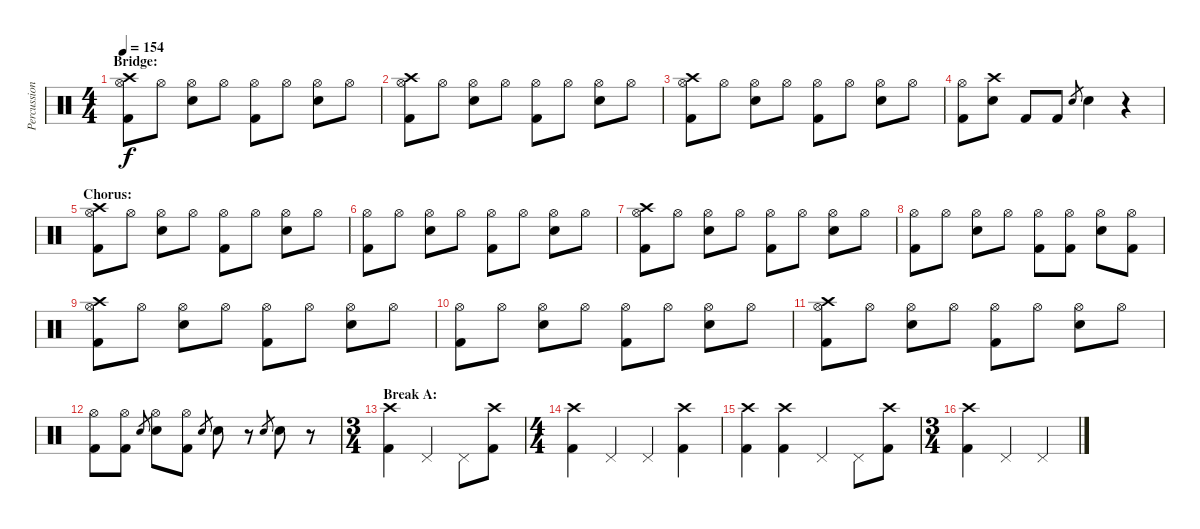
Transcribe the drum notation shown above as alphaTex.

\track ("Percussion" "Percussion") {instrument percussion}
\staff {score}
\articulation defaults
\ts (4 4)
\section ("" "Bridge:")
\tempo 154
\clef neutral
\ks c
("Hi-Hat (open)" "Crash high (hit)" "Kick (hit) 2").8{dy f} "Hi-Hat (open)".8 ("Hi-Hat (open)" "Snare (hit) 2").8 "Hi-Hat (open)".8 ("Hi-Hat (open)" "Kick (hit) 2").8 "Hi-Hat (open)".8 ("Hi-Hat (open)" "Snare (hit) 2").8 "Hi-Hat (open)".8 |
("Hi-Hat (open)" "Crash high (hit)" "Kick (hit) 2").8 "Hi-Hat (open)".8 ("Hi-Hat (open)" "Snare (hit) 2").8 "Hi-Hat (open)".8 ("Hi-Hat (open)" "Kick (hit) 2").8 "Hi-Hat (open)".8 ("Hi-Hat (open)" "Snare (hit) 2").8 "Hi-Hat (open)".8 |
("Hi-Hat (open)" "Crash high (hit)" "Kick (hit) 2").8 "Hi-Hat (open)".8 ("Hi-Hat (open)" "Snare (hit) 2").8 "Hi-Hat (open)".8 ("Hi-Hat (open)" "Kick (hit) 2").8 "Hi-Hat (open)".8 ("Hi-Hat (open)" "Snare (hit) 2").8 "Hi-Hat (open)".8 |
("Hi-Hat (open)" "Kick (hit) 2").8 ("Crash high (hit)" "Snare (hit) 2").8 "Kick (hit) 2".8 "Kick (hit) 2".8 "Snare (hit) 2".8{gr} "Snare (hit) 2".4 r.4 |
\section ("" "Chorus:")
("Hi-Hat (open)" "Crash high (hit)" "Kick (hit) 2").8 "Hi-Hat (open)".8 ("Hi-Hat (open)" "Snare (hit) 2").8 "Hi-Hat (open)".8 ("Hi-Hat (open)" "Kick (hit) 2").8 "Hi-Hat (open)".8 ("Hi-Hat (open)" "Snare (hit) 2").8 "Hi-Hat (open)".8 |
("Hi-Hat (open)" "Kick (hit) 2").8 "Hi-Hat (open)".8 ("Hi-Hat (open)" "Snare (hit) 2").8 "Hi-Hat (open)".8 ("Hi-Hat (open)" "Kick (hit) 2").8 "Hi-Hat (open)".8 ("Hi-Hat (open)" "Snare (hit) 2").8 "Hi-Hat (open)".8 |
("Hi-Hat (open)" "Crash high (hit)" "Kick (hit) 2").8 "Hi-Hat (open)".8 ("Hi-Hat (open)" "Snare (hit) 2").8 "Hi-Hat (open)".8 ("Hi-Hat (open)" "Kick (hit) 2").8 "Hi-Hat (open)".8 ("Hi-Hat (open)" "Snare (hit) 2").8 "Hi-Hat (open)".8 |
("Hi-Hat (open)" "Kick (hit) 2").8 "Hi-Hat (open)".8 ("Hi-Hat (open)" "Snare (hit) 2").8 "Hi-Hat (open)".8 ("Hi-Hat (open)" "Kick (hit) 2").8 ("Hi-Hat (open)" "Kick (hit) 2").8 ("Hi-Hat (open)" "Snare (hit) 2").8 ("Hi-Hat (open)" "Kick (hit) 2").8 |
("Hi-Hat (open)" "Crash high (hit)" "Kick (hit) 2").8 "Hi-Hat (open)".8 ("Hi-Hat (open)" "Snare (hit) 2").8 "Hi-Hat (open)".8 ("Hi-Hat (open)" "Kick (hit) 2").8 "Hi-Hat (open)".8 ("Hi-Hat (open)" "Snare (hit) 2").8 "Hi-Hat (open)".8 |
("Hi-Hat (open)" "Kick (hit) 2").8 "Hi-Hat (open)".8 ("Hi-Hat (open)" "Snare (hit) 2").8 "Hi-Hat (open)".8 ("Hi-Hat (open)" "Kick (hit) 2").8 "Hi-Hat (open)".8 ("Hi-Hat (open)" "Snare (hit) 2").8 "Hi-Hat (open)".8 |
("Hi-Hat (open)" "Crash high (hit)" "Kick (hit) 2").8 "Hi-Hat (open)".8 ("Hi-Hat (open)" "Snare (hit) 2").8 "Hi-Hat (open)".8 ("Hi-Hat (open)" "Kick (hit) 2").8 "Hi-Hat (open)".8 ("Hi-Hat (open)" "Snare (hit) 2").8 "Hi-Hat (open)".8 |
("Hi-Hat (open)" "Kick (hit) 2").8 ("Hi-Hat (open)" "Kick (hit) 2").8 "Snare (hit) 2".8{gr} ("Hi-Hat (open)" "Snare (hit) 2").8 ("Hi-Hat (open)" "Kick (hit) 2").8 "Snare (hit) 2".8{gr} "Snare (hit) 2".8 r.8 "Snare (hit) 2".8{gr} "Snare (hit) 2".8 r.8 |
\ts (3 4)
\section ("" "Break A:")
("Crash high (hit)" "Kick (hit) 2").4 "Pedal Hi-Hat (hit)".4 "Pedal Hi-Hat (hit)".8 ("Crash high (hit)" "Kick (hit) 2").8 |
\ts (4 4)
("Crash high (hit)" "Kick (hit) 2").4 "Pedal Hi-Hat (hit)".4 "Pedal Hi-Hat (hit)".4 ("Crash high (hit)" "Kick (hit) 2").4 |
("Crash high (hit)" "Kick (hit) 2").4 ("Crash high (hit)" "Kick (hit) 2").4 "Pedal Hi-Hat (hit)".4 "Pedal Hi-Hat (hit)".8 ("Crash high (hit)" "Kick (hit) 2").8 |
\ts (3 4)
("Crash high (hit)" "Kick (hit) 2").4 "Pedal Hi-Hat (hit)".4 "Pedal Hi-Hat (hit)".4
